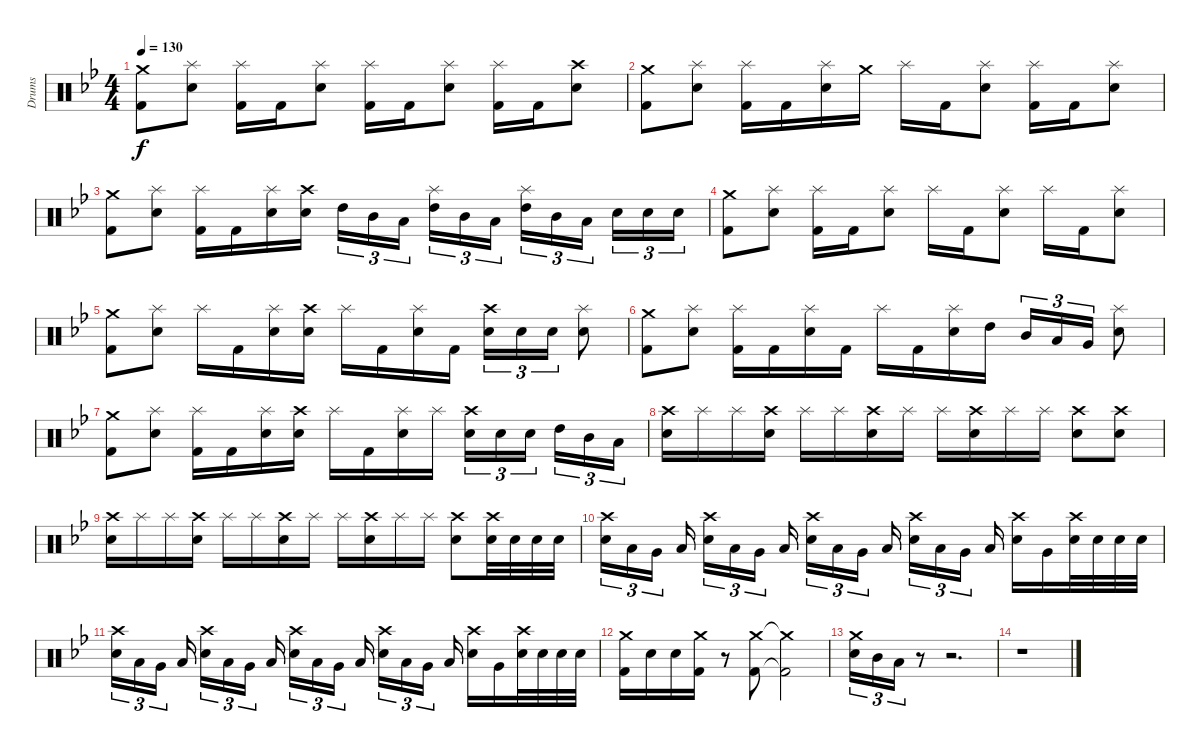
\track ("Drums" "Drums") {instrument percussion}
\staff {score}
\articulation defaults
\ts (4 4)
\tempo 130
\clef neutral
\ks bb
("Crash medium (hit)" "Kick (hit) 2").8{dy f} ("Electric Snare (hit)" "Splash (hit)").8 ("Splash (hit)" "Kick (hit) 2").16 "Kick (hit) 2".16 ("Electric Snare (hit)" "Splash (hit)").8 ("Splash (hit)" "Kick (hit) 2").16 "Kick (hit) 2".16 ("Electric Snare (hit)" "Splash (hit)").8 ("Splash (hit)" "Kick (hit) 2").16 "Kick (hit) 2".16 ("Electric Snare (hit)" "Crash high (hit)").8 |
("Crash medium (hit)" "Kick (hit) 2").8 ("Electric Snare (hit)" "Splash (hit)").8 ("Splash (hit)" "Kick (hit) 2").16 "Kick (hit) 2".16 ("Electric Snare (hit)" "Splash (hit)").16 "Crash medium (hit)".16 "Splash (hit)".16 "Kick (hit) 2".16 ("Electric Snare (hit)" "Splash (hit)").8 ("Splash (hit)" "Kick (hit) 2").16 "Kick (hit) 2".16 ("Electric Snare (hit)" "Splash (hit)").8 |
("Crash medium (hit)" "Kick (hit) 2").8 ("Electric Snare (hit)" "Splash (hit)").8 ("Splash (hit)" "Kick (hit) 2").16 "Kick (hit) 2".16 ("Electric Snare (hit)" "Splash (hit)").16 ("Electric Snare (hit)" "Crash high (hit)").16 "High Tom (hit)".16{tu (3 2)} "Mid Tom (hit)".16{tu (3 2)} "Low Tom (hit)".16{tu (3 2) beam splitsecondary} ("High Tom (hit)" "Splash (hit)").16{tu (3 2)} "Mid Tom (hit)".16{tu (3 2)} "Low Tom (hit)".16{tu (3 2)} ("High Tom (hit)" "Splash (hit)").16{tu (3 2)} "Mid Tom (hit)".16{tu (3 2)} "Low Tom (hit)".16{tu (3 2) beam splitsecondary} "Electric Snare (hit)".16{tu (3 2) volume 11} "Electric Snare (hit)".16{tu (3 2) volume 10} "Electric Snare (hit)".16{tu (3 2) volume 9} |
("Crash medium (hit)" "Kick (hit) 2").8{volume 12} ("Electric Snare (hit)" "Splash (hit)").8 ("Splash (hit)" "Kick (hit) 2").16 "Kick (hit) 2".16 ("Electric Snare (hit)" "Splash (hit)").8 "Splash (hit)".16 "Kick (hit) 2".16 ("Electric Snare (hit)" "Splash (hit)").8 "Splash (hit)".16 "Kick (hit) 2".16 ("Electric Snare (hit)" "Splash (hit)").8 |
("Crash medium (hit)" "Kick (hit) 2").8 ("Electric Snare (hit)" "Splash (hit)").8 "Splash (hit)".16 "Kick (hit) 2".16 ("Electric Snare (hit)" "Splash (hit)").16 ("Electric Snare (hit)" "Crash high (hit)").16 "Splash (hit)".16 "Kick (hit) 2".16 ("Electric Snare (hit)" "Splash (hit)").16 "Kick (hit) 2".16 ("Electric Snare (hit)" "Crash high (hit)").16{tu (3 2)} "Electric Snare (hit)".16{tu (3 2)} "Electric Snare (hit)".16{tu (3 2)} ("Electric Snare (hit)" "Splash (hit)").8 |
("Crash medium (hit)" "Kick (hit) 2").8 ("Electric Snare (hit)" "Splash (hit)").8 ("Splash (hit)" "Kick (hit) 2").16 "Kick (hit) 2".16 ("Electric Snare (hit)" "Splash (hit)").16 "Kick (hit) 2".16 "Splash (hit)".16 "Kick (hit) 2".16 ("Electric Snare (hit)" "Splash (hit)").16 "High Tom (hit)".16 "Mid Tom (hit)".16{tu (3 2)} "Low Tom (hit)".16{tu (3 2)} "Very Low Tom (hit)".16{tu (3 2)} ("Electric Snare (hit)" "Splash (hit)").8 |
("Crash medium (hit)" "Kick (hit) 2").8 ("Electric Snare (hit)" "Splash (hit)").8 ("Splash (hit)" "Kick (hit) 2").16 "Kick (hit) 2".16 ("Electric Snare (hit)" "Splash (hit)").16 ("Electric Snare (hit)" "Crash high (hit)").16 "Splash (hit)".16 "Kick (hit) 2".16 ("Electric Snare (hit)" "Splash (hit)").16 "Splash (hit)".16 ("Electric Snare (hit)" "Crash high (hit)").16{tu (3 2)} "Electric Snare (hit)".16{tu (3 2)} "Electric Snare (hit)".16{tu (3 2) beam splitsecondary} "High Tom (hit)".16{tu (3 2)} "Mid Tom (hit)".16{tu (3 2)} "Low Tom (hit)".16{tu (3 2)} |
("Crash high (hit)" "Electric Snare (hit)").16 "Splash (hit)".16 "Splash (hit)".16 ("Crash high (hit)" "Electric Snare (hit)").16 "Splash (hit)".16 "Splash (hit)".16 ("Crash high (hit)" "Electric Snare (hit)").16 "Splash (hit)".16 "Splash (hit)".16 ("Crash high (hit)" "Electric Snare (hit)").16 "Splash (hit)".16 "Splash (hit)".16 ("Crash high (hit)" "Electric Snare (hit)").8 ("Crash high (hit)" "Electric Snare (hit)").8 |
("Crash high (hit)" "Electric Snare (hit)").16 "Splash (hit)".16 "Splash (hit)".16 ("Crash high (hit)" "Electric Snare (hit)").16 "Splash (hit)".16 "Splash (hit)".16 ("Crash high (hit)" "Electric Snare (hit)").16 "Splash (hit)".16 "Splash (hit)".16 ("Crash high (hit)" "Electric Snare (hit)").16 "Splash (hit)".16 "Splash (hit)".16 ("Crash high (hit)" "Electric Snare (hit)").8 ("Electric Snare (hit)" "Crash high (hit)").32{volume 11} "Electric Snare (hit)".32 "Electric Snare (hit)".32{volume 10} "Electric Snare (hit)".32 |
("Crash high (hit)" "Electric Snare (hit)").16{tu (3 2)} "Low Tom (hit)".16{tu (3 2)} "Very Low Tom (hit)".16{tu (3 2) beam splitsecondary} "Low Floor Tom (hit)".16{beam splitsecondary} ("Crash high (hit)" "Electric Snare (hit)").16{tu (3 2)} "Low Tom (hit)".16{tu (3 2)} "Very Low Tom (hit)".16{tu (3 2) beam splitsecondary} "Low Floor Tom (hit)".16{beam splitsecondary} ("Crash high (hit)" "Electric Snare (hit)").16{tu (3 2)} "Low Tom (hit)".16{tu (3 2)} "Very Low Tom (hit)".16{tu (3 2)} "Low Floor Tom (hit)".16{beam splitsecondary} ("Crash high (hit)" "Electric Snare (hit)").16{tu (3 2)} "Low Tom (hit)".16{tu (3 2)} "Very Low Tom (hit)".16{tu (3 2) beam splitsecondary} "Low Floor Tom (hit)".16 ("Crash high (hit)" "Electric Snare (hit)").16 "Very Low Tom (hit)".16 ("Electric Snare (hit)" "Crash high (hit)").32{volume 11} "Electric Snare (hit)".32 "Electric Snare (hit)".32{volume 10} "Electric Snare (hit)".32 |
("Crash high (hit)" "Electric Snare (hit)").16{tu (3 2)} "Low Tom (hit)".16{tu (3 2)} "Very Low Tom (hit)".16{tu (3 2) beam splitsecondary} "Low Floor Tom (hit)".16{beam splitsecondary} ("Crash high (hit)" "Electric Snare (hit)").16{tu (3 2)} "Low Tom (hit)".16{tu (3 2)} "Very Low Tom (hit)".16{tu (3 2) beam splitsecondary} "Low Floor Tom (hit)".16{beam splitsecondary} ("Crash high (hit)" "Electric Snare (hit)").16{tu (3 2)} "Low Tom (hit)".16{tu (3 2)} "Very Low Tom (hit)".16{tu (3 2)} "Low Floor Tom (hit)".16{beam splitsecondary} ("Crash high (hit)" "Electric Snare (hit)").16{tu (3 2)} "Low Tom (hit)".16{tu (3 2)} "Very Low Tom (hit)".16{tu (3 2) beam splitsecondary} "Low Floor Tom (hit)".16 ("Crash high (hit)" "Electric Snare (hit)").16 "Very Low Tom (hit)".16 ("Electric Snare (hit)" "Crash high (hit)").32{volume 11} "Electric Snare (hit)".32 "Electric Snare (hit)".32{volume 10} "Electric Snare (hit)".32 |
("Crash medium (hit)" "Kick (hit) 2").16{volume 12} "Electric Snare (hit)".16 "Electric Snare (hit)".16 ("Crash medium (hit)" "Kick (hit) 2").16 r.8 ("Crash medium (hit)" "Kick (hit) 2").8 ("Crash medium (hit)"{t} "Kick (hit) 2"{t}).2 |
("Electric Snare (hit)" "Crash medium (hit)").16{tu (3 2) volume 13} "Mid Tom (hit)".16{tu (3 2)} "Low Tom (hit)".16{tu (3 2)} r.8 r.2{d} |
r.1
